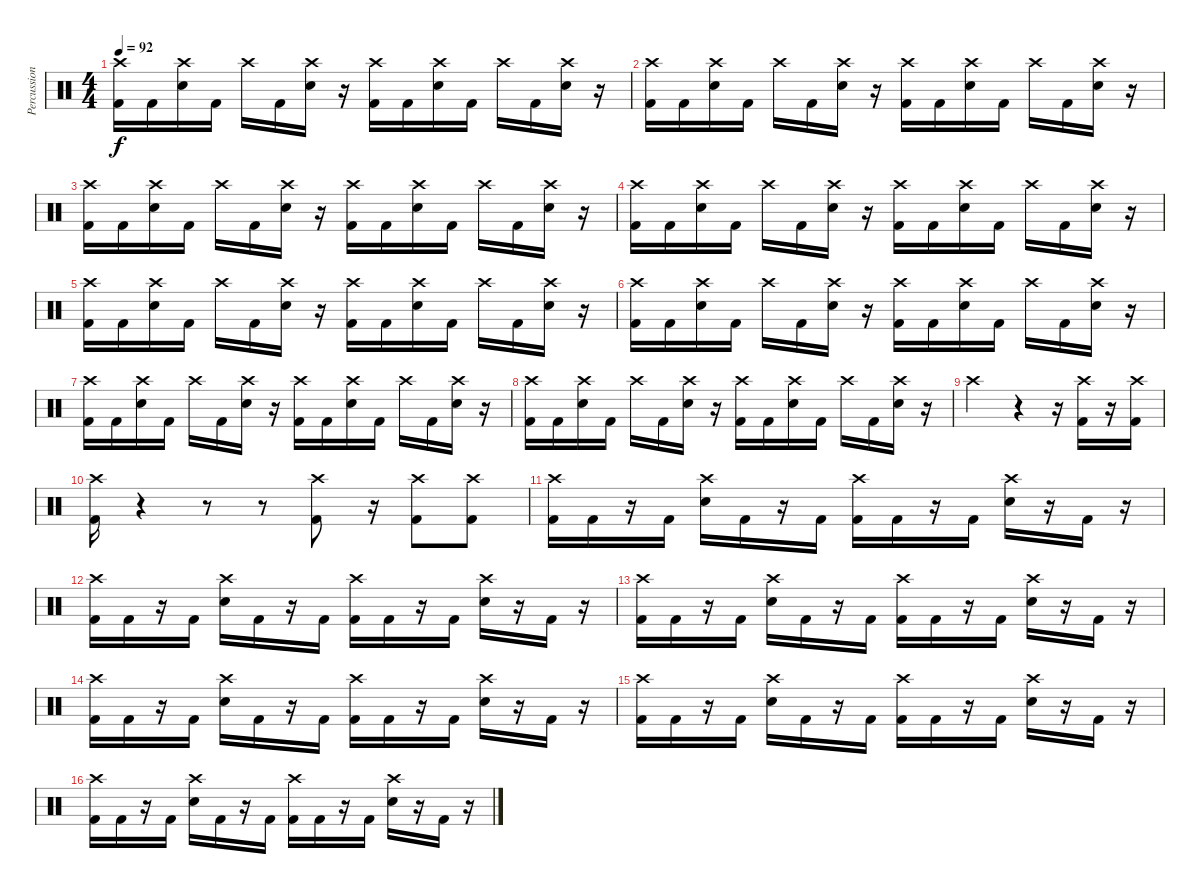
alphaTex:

\track ("Percussion" "Percussion") {instrument percussion}
\staff {score}
\articulation defaults
\ts (4 4)
\tempo 92
\clef neutral
\ks c
("Crash high (hit)" "Kick (hit) 2").16{dy f} "Kick (hit) 2".16 ("Crash high (hit)" "Snare (hit) 2").16 "Kick (hit) 2".16 "Crash high (hit)".16 "Kick (hit) 2".16 ("Crash high (hit)" "Snare (hit) 2").16 r.16 ("Crash high (hit)" "Kick (hit) 2").16 "Kick (hit) 2".16 ("Crash high (hit)" "Snare (hit) 2").16 "Kick (hit) 2".16 "Crash high (hit)".16 "Kick (hit) 2".16 ("Crash high (hit)" "Snare (hit) 2").16 r.16 |
("Crash high (hit)" "Kick (hit) 2").16 "Kick (hit) 2".16 ("Crash high (hit)" "Snare (hit) 2").16 "Kick (hit) 2".16 "Crash high (hit)".16 "Kick (hit) 2".16 ("Crash high (hit)" "Snare (hit) 2").16 r.16 ("Crash high (hit)" "Kick (hit) 2").16 "Kick (hit) 2".16 ("Crash high (hit)" "Snare (hit) 2").16 "Kick (hit) 2".16 "Crash high (hit)".16 "Kick (hit) 2".16 ("Crash high (hit)" "Snare (hit) 2").16 r.16 |
("Crash high (hit)" "Kick (hit) 2").16 "Kick (hit) 2".16 ("Crash high (hit)" "Snare (hit) 2").16 "Kick (hit) 2".16 "Crash high (hit)".16 "Kick (hit) 2".16 ("Crash high (hit)" "Snare (hit) 2").16 r.16 ("Crash high (hit)" "Kick (hit) 2").16 "Kick (hit) 2".16 ("Crash high (hit)" "Snare (hit) 2").16 "Kick (hit) 2".16 "Crash high (hit)".16 "Kick (hit) 2".16 ("Crash high (hit)" "Snare (hit) 2").16 r.16 |
("Crash high (hit)" "Kick (hit) 2").16 "Kick (hit) 2".16 ("Crash high (hit)" "Snare (hit) 2").16 "Kick (hit) 2".16 "Crash high (hit)".16 "Kick (hit) 2".16 ("Crash high (hit)" "Snare (hit) 2").16 r.16 ("Crash high (hit)" "Kick (hit) 2").16 "Kick (hit) 2".16 ("Crash high (hit)" "Snare (hit) 2").16 "Kick (hit) 2".16 "Crash high (hit)".16 "Kick (hit) 2".16 ("Crash high (hit)" "Snare (hit) 2").16 r.16 |
("Crash high (hit)" "Kick (hit) 2").16 "Kick (hit) 2".16 ("Crash high (hit)" "Snare (hit) 2").16 "Kick (hit) 2".16 "Crash high (hit)".16 "Kick (hit) 2".16 ("Crash high (hit)" "Snare (hit) 2").16 r.16 ("Crash high (hit)" "Kick (hit) 2").16 "Kick (hit) 2".16 ("Crash high (hit)" "Snare (hit) 2").16 "Kick (hit) 2".16 "Crash high (hit)".16 "Kick (hit) 2".16 ("Crash high (hit)" "Snare (hit) 2").16 r.16 |
("Crash high (hit)" "Kick (hit) 2").16 "Kick (hit) 2".16 ("Crash high (hit)" "Snare (hit) 2").16 "Kick (hit) 2".16 "Crash high (hit)".16 "Kick (hit) 2".16 ("Crash high (hit)" "Snare (hit) 2").16 r.16 ("Crash high (hit)" "Kick (hit) 2").16 "Kick (hit) 2".16 ("Crash high (hit)" "Snare (hit) 2").16 "Kick (hit) 2".16 "Crash high (hit)".16 "Kick (hit) 2".16 ("Crash high (hit)" "Snare (hit) 2").16 r.16 |
("Crash high (hit)" "Kick (hit) 2").16 "Kick (hit) 2".16 ("Crash high (hit)" "Snare (hit) 2").16 "Kick (hit) 2".16 "Crash high (hit)".16 "Kick (hit) 2".16 ("Crash high (hit)" "Snare (hit) 2").16 r.16 ("Crash high (hit)" "Kick (hit) 2").16 "Kick (hit) 2".16 ("Crash high (hit)" "Snare (hit) 2").16 "Kick (hit) 2".16 "Crash high (hit)".16 "Kick (hit) 2".16 ("Crash high (hit)" "Snare (hit) 2").16 r.16 |
("Crash high (hit)" "Kick (hit) 2").16 "Kick (hit) 2".16 ("Crash high (hit)" "Snare (hit) 2").16 "Kick (hit) 2".16 "Crash high (hit)".16 "Kick (hit) 2".16 ("Crash high (hit)" "Snare (hit) 2").16 r.16 ("Crash high (hit)" "Kick (hit) 2").16 "Kick (hit) 2".16 ("Crash high (hit)" "Snare (hit) 2").16 "Kick (hit) 2".16 "Crash high (hit)".16 "Kick (hit) 2".16 ("Crash high (hit)" "Snare (hit) 2").16 r.16 |
"Crash high (hit)".2 r.4 r.16 ("Crash high (hit)" "Kick (hit) 2").16 r.16 ("Crash high (hit)" "Kick (hit) 2").16 |
("Crash high (hit)" "Kick (hit) 2").16 r.4 r.8 r.8 ("Crash high (hit)" "Kick (hit) 2").8 r.16 ("Crash high (hit)" "Kick (hit) 2").8 ("Crash high (hit)" "Kick (hit) 2").8 |
("Crash high (hit)" "Kick (hit) 2").16 "Kick (hit) 2".16 r.16 "Kick (hit) 2".16 ("Crash high (hit)" "Snare (hit) 2").16 "Kick (hit) 2".16 r.16 "Kick (hit) 2".16 ("Crash high (hit)" "Kick (hit) 2").16 "Kick (hit) 2".16 r.16 "Kick (hit) 2".16 ("Crash high (hit)" "Snare (hit) 2").16 r.16 "Kick (hit) 2".16 r.16 |
("Crash high (hit)" "Kick (hit) 2").16 "Kick (hit) 2".16 r.16 "Kick (hit) 2".16 ("Crash high (hit)" "Snare (hit) 2").16 "Kick (hit) 2".16 r.16 "Kick (hit) 2".16 ("Crash high (hit)" "Kick (hit) 2").16 "Kick (hit) 2".16 r.16 "Kick (hit) 2".16 ("Crash high (hit)" "Snare (hit) 2").16 r.16 "Kick (hit) 2".16 r.16 |
("Crash high (hit)" "Kick (hit) 2").16 "Kick (hit) 2".16 r.16 "Kick (hit) 2".16 ("Crash high (hit)" "Snare (hit) 2").16 "Kick (hit) 2".16 r.16 "Kick (hit) 2".16 ("Crash high (hit)" "Kick (hit) 2").16 "Kick (hit) 2".16 r.16 "Kick (hit) 2".16 ("Crash high (hit)" "Snare (hit) 2").16 r.16 "Kick (hit) 2".16 r.16 |
("Crash high (hit)" "Kick (hit) 2").16 "Kick (hit) 2".16 r.16 "Kick (hit) 2".16 ("Crash high (hit)" "Snare (hit) 2").16 "Kick (hit) 2".16 r.16 "Kick (hit) 2".16 ("Crash high (hit)" "Kick (hit) 2").16 "Kick (hit) 2".16 r.16 "Kick (hit) 2".16 ("Crash high (hit)" "Snare (hit) 2").16 r.16 "Kick (hit) 2".16 r.16 |
("Crash high (hit)" "Kick (hit) 2").16 "Kick (hit) 2".16 r.16 "Kick (hit) 2".16 ("Crash high (hit)" "Snare (hit) 2").16 "Kick (hit) 2".16 r.16 "Kick (hit) 2".16 ("Crash high (hit)" "Kick (hit) 2").16 "Kick (hit) 2".16 r.16 "Kick (hit) 2".16 ("Crash high (hit)" "Snare (hit) 2").16 r.16 "Kick (hit) 2".16 r.16 |
("Crash high (hit)" "Kick (hit) 2").16 "Kick (hit) 2".16 r.16 "Kick (hit) 2".16 ("Crash high (hit)" "Snare (hit) 2").16 "Kick (hit) 2".16 r.16 "Kick (hit) 2".16 ("Crash high (hit)" "Kick (hit) 2").16 "Kick (hit) 2".16 r.16 "Kick (hit) 2".16 ("Crash high (hit)" "Snare (hit) 2").16 r.16 "Kick (hit) 2".16 r.16
